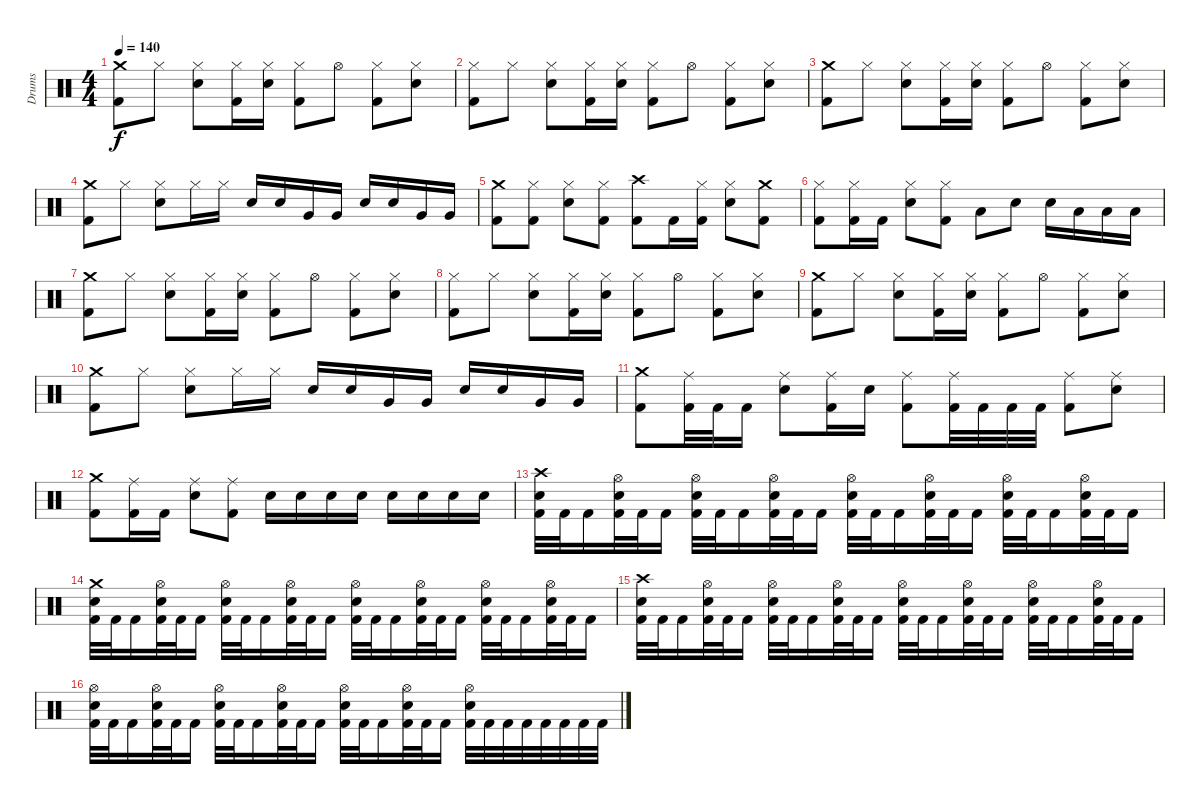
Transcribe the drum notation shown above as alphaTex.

\track ("Drums" "Drums") {instrument percussion}
\staff {score}
\articulation defaults
\ts (4 4)
\tempo 140
\clef neutral
\ks c
("Crash medium (hit)" "Kick (hit) 2").8{dy f} "Hi-Hat (closed)".8 ("Hi-Hat (closed)" "Snare (hit) 2").8 ("Hi-Hat (closed)" "Kick (hit) 2").16 ("Hi-Hat (closed)" "Snare (hit) 2").16 ("Hi-Hat (closed)" "Kick (hit) 2").8 "Hi-Hat (open)".8 ("Hi-Hat (closed)" "Kick (hit) 2").8 ("Hi-Hat (closed)" "Snare (hit) 2").8 |
("Hi-Hat (closed)" "Kick (hit) 2").8 "Hi-Hat (closed)".8 ("Hi-Hat (closed)" "Snare (hit) 2").8 ("Hi-Hat (closed)" "Kick (hit) 2").16 ("Hi-Hat (closed)" "Snare (hit) 2").16 ("Hi-Hat (closed)" "Kick (hit) 2").8 "Hi-Hat (open)".8 ("Hi-Hat (closed)" "Kick (hit) 2").8 ("Hi-Hat (closed)" "Snare (hit) 2").8 |
("Crash medium (hit)" "Kick (hit) 2").8 "Hi-Hat (closed)".8 ("Hi-Hat (closed)" "Snare (hit) 2").8 ("Hi-Hat (closed)" "Kick (hit) 2").16 ("Hi-Hat (closed)" "Snare (hit) 2").16 ("Hi-Hat (closed)" "Kick (hit) 2").8 "Hi-Hat (open)".8 ("Hi-Hat (closed)" "Kick (hit) 2").8 ("Hi-Hat (closed)" "Snare (hit) 2").8 |
("Crash medium (hit)" "Kick (hit) 2").8 "Hi-Hat (closed)".8 ("Hi-Hat (closed)" "Snare (hit) 2").8 "Hi-Hat (closed)".16 "Hi-Hat (closed)".16 "Snare (hit) 2".16 "Snare (hit) 2".16 "Very Low Tom (hit)".16 "Very Low Tom (hit)".16 "Snare (hit) 2".16 "Snare (hit) 2".16 "Very Low Tom (hit)".16 "Very Low Tom (hit)".16 |
("Crash medium (hit)" "Kick (hit) 2").8 ("Hi-Hat (closed)" "Kick (hit) 2").8 ("Hi-Hat (closed)" "Snare (hit) 2").8 ("Hi-Hat (closed)" "Kick (hit) 2").8 ("Crash high (hit)" "Kick (hit) 2").8 "Kick (hit) 2".16 ("Hi-Hat (closed)" "Kick (hit) 2").16 ("Hi-Hat (closed)" "Snare (hit) 2").8 ("Crash medium (hit)" "Kick (hit) 2").8 |
("Hi-Hat (closed)" "Kick (hit) 2").8 ("Hi-Hat (closed)" "Kick (hit) 2").16 "Kick (hit) 2".16 ("Hi-Hat (closed)" "Snare (hit) 2").8 ("Hi-Hat (closed)" "Kick (hit) 2").8 "Low Tom (hit)".8 "Snare (hit) 2".8 "Snare (hit) 2".16 "Low Tom (hit)".16 "Low Tom (hit)".16 "Low Tom (hit)".16 |
("Crash medium (hit)" "Kick (hit) 2").8 "Hi-Hat (closed)".8 ("Hi-Hat (closed)" "Snare (hit) 2").8 ("Hi-Hat (closed)" "Kick (hit) 2").16 ("Hi-Hat (closed)" "Snare (hit) 2").16 ("Hi-Hat (closed)" "Kick (hit) 2").8 "Hi-Hat (open)".8 ("Hi-Hat (closed)" "Kick (hit) 2").8 ("Hi-Hat (closed)" "Snare (hit) 2").8 |
("Hi-Hat (closed)" "Kick (hit) 2").8 "Hi-Hat (closed)".8 ("Hi-Hat (closed)" "Snare (hit) 2").8 ("Hi-Hat (closed)" "Kick (hit) 2").16 ("Hi-Hat (closed)" "Snare (hit) 2").16 ("Hi-Hat (closed)" "Kick (hit) 2").8 "Hi-Hat (open)".8 ("Hi-Hat (closed)" "Kick (hit) 2").8 ("Hi-Hat (closed)" "Snare (hit) 2").8 |
("Crash medium (hit)" "Kick (hit) 2").8 "Hi-Hat (closed)".8 ("Hi-Hat (closed)" "Snare (hit) 2").8 ("Hi-Hat (closed)" "Kick (hit) 2").16 ("Hi-Hat (closed)" "Snare (hit) 2").16 ("Hi-Hat (closed)" "Kick (hit) 2").8 "Hi-Hat (open)".8 ("Hi-Hat (closed)" "Kick (hit) 2").8 ("Hi-Hat (closed)" "Snare (hit) 2").8 |
("Crash medium (hit)" "Kick (hit) 2").8 "Hi-Hat (closed)".8 ("Hi-Hat (closed)" "Snare (hit) 2").8 "Hi-Hat (closed)".16 "Hi-Hat (closed)".16 "Snare (hit) 2".16 "Snare (hit) 2".16 "Very Low Tom (hit)".16 "Very Low Tom (hit)".16 "Snare (hit) 2".16 "Snare (hit) 2".16 "Very Low Tom (hit)".16 "Very Low Tom (hit)".16 |
("Crash medium (hit)" "Kick (hit) 2").8 ("Ride (middle)" "Kick (hit) 2").32 "Kick (hit) 2".32 "Kick (hit) 2".16 ("Ride (middle)" "Snare (hit) 2").8 ("Ride (middle)" "Kick (hit) 2").16 "Snare (hit) 2".16 ("Ride (middle)" "Kick (hit) 2").8 ("Ride (middle)" "Kick (hit) 2").32 "Kick (hit) 2".32 "Kick (hit) 2".32 "Kick (hit) 2".32 ("Ride (middle)" "Kick (hit) 2").8 ("Ride (middle)" "Snare (hit) 2").8 |
("Crash medium (hit)" "Kick (hit) 2").8 ("Ride (middle)" "Kick (hit) 2").16 "Kick (hit) 2".16 ("Ride (middle)" "Snare (hit) 2").8 ("Ride (middle)" "Kick (hit) 2").8 "Snare (hit) 2".16 "Snare (hit) 2".16 "Snare (hit) 2".16 "Snare (hit) 2".16 "Snare (hit) 2".16 "Snare (hit) 2".16 "Snare (hit) 2".16 "Snare (hit) 2".16 |
("Crash high (hit)" "Snare (hit) 2" "Kick (hit) 2").32 "Kick (hit) 2".32 "Kick (hit) 2".16 ("Hi-Hat (open)" "Snare (hit) 2" "Kick (hit) 2").32 "Kick (hit) 2".32 "Kick (hit) 2".16 ("Hi-Hat (open)" "Snare (hit) 2" "Kick (hit) 2").32 "Kick (hit) 2".32 "Kick (hit) 2".16 ("Hi-Hat (open)" "Snare (hit) 2" "Kick (hit) 2").32 "Kick (hit) 2".32 "Kick (hit) 2".16 ("Hi-Hat (open)" "Snare (hit) 2" "Kick (hit) 2").32 "Kick (hit) 2".32 "Kick (hit) 2".16 ("Hi-Hat (open)" "Snare (hit) 2" "Kick (hit) 2").32 "Kick (hit) 2".32 "Kick (hit) 2".16 ("Hi-Hat (open)" "Snare (hit) 2" "Kick (hit) 2").32 "Kick (hit) 2".32 "Kick (hit) 2".16 ("Hi-Hat (open)" "Snare (hit) 2" "Kick (hit) 2").32 "Kick (hit) 2".32 "Kick (hit) 2".16 |
("Crash medium (hit)" "Snare (hit) 2" "Kick (hit) 2").32 "Kick (hit) 2".32 "Kick (hit) 2".16 ("Hi-Hat (open)" "Snare (hit) 2" "Kick (hit) 2").32 "Kick (hit) 2".32 "Kick (hit) 2".16 ("Hi-Hat (open)" "Snare (hit) 2" "Kick (hit) 2").32 "Kick (hit) 2".32 "Kick (hit) 2".16 ("Hi-Hat (open)" "Snare (hit) 2" "Kick (hit) 2").32 "Kick (hit) 2".32 "Kick (hit) 2".16 ("Hi-Hat (open)" "Snare (hit) 2" "Kick (hit) 2").32 "Kick (hit) 2".32 "Kick (hit) 2".16 ("Hi-Hat (open)" "Snare (hit) 2" "Kick (hit) 2").32 "Kick (hit) 2".32 "Kick (hit) 2".16 ("Hi-Hat (open)" "Snare (hit) 2" "Kick (hit) 2").32 "Kick (hit) 2".32 "Kick (hit) 2".16 ("Hi-Hat (open)" "Snare (hit) 2" "Kick (hit) 2").32 "Kick (hit) 2".32 "Kick (hit) 2".16 |
("Crash high (hit)" "Snare (hit) 2" "Kick (hit) 2").32 "Kick (hit) 2".32 "Kick (hit) 2".16 ("Hi-Hat (open)" "Snare (hit) 2" "Kick (hit) 2").32 "Kick (hit) 2".32 "Kick (hit) 2".16 ("Hi-Hat (open)" "Snare (hit) 2" "Kick (hit) 2").32 "Kick (hit) 2".32 "Kick (hit) 2".16 ("Hi-Hat (open)" "Snare (hit) 2" "Kick (hit) 2").32 "Kick (hit) 2".32 "Kick (hit) 2".16 ("Hi-Hat (open)" "Snare (hit) 2" "Kick (hit) 2").32 "Kick (hit) 2".32 "Kick (hit) 2".16 ("Hi-Hat (open)" "Snare (hit) 2" "Kick (hit) 2").32 "Kick (hit) 2".32 "Kick (hit) 2".16 ("Hi-Hat (open)" "Snare (hit) 2" "Kick (hit) 2").32 "Kick (hit) 2".32 "Kick (hit) 2".16 ("Hi-Hat (open)" "Snare (hit) 2" "Kick (hit) 2").32 "Kick (hit) 2".32 "Kick (hit) 2".16 |
("Hi-Hat (open)" "Snare (hit) 2" "Kick (hit) 2").32 "Kick (hit) 2".32 "Kick (hit) 2".16 ("Hi-Hat (open)" "Snare (hit) 2" "Kick (hit) 2").32 "Kick (hit) 2".32 "Kick (hit) 2".16 ("Hi-Hat (open)" "Snare (hit) 2" "Kick (hit) 2").32 "Kick (hit) 2".32 "Kick (hit) 2".16 ("Hi-Hat (open)" "Snare (hit) 2" "Kick (hit) 2").32 "Kick (hit) 2".32 "Kick (hit) 2".16 ("Hi-Hat (open)" "Snare (hit) 2" "Kick (hit) 2").32 "Kick (hit) 2".32 "Kick (hit) 2".16 ("Hi-Hat (open)" "Snare (hit) 2" "Kick (hit) 2").32 "Kick (hit) 2".32 "Kick (hit) 2".16 ("Hi-Hat (open)" "Snare (hit) 2" "Kick (hit) 2").32 "Kick (hit) 2".32 "Kick (hit) 2".32 "Kick (hit) 2".32 "Kick (hit) 2".32 "Kick (hit) 2".32 "Kick (hit) 2".32 "Kick (hit) 2".32
